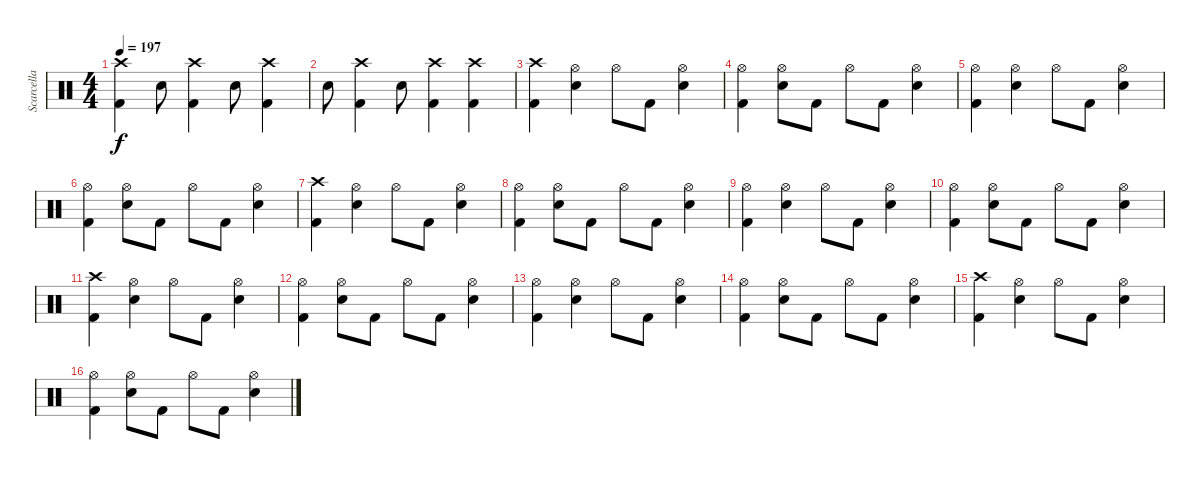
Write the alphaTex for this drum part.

\track ("Scarcella" "Scarcella") {instrument percussion}
\staff {score}
\articulation defaults
\ts (4 4)
\tempo 197
\clef neutral
\ks c
("Crash high (hit)" "Kick (hit) 2").4{dy f} "Electric Snare (hit)".8 ("Crash high (hit)" "Kick (hit) 2").4 "Electric Snare (hit)".8 ("Crash high (hit)" "Kick (hit) 2").4 |
"Electric Snare (hit)".8 ("Crash high (hit)" "Kick (hit) 2").4 "Electric Snare (hit)".8 ("Crash high (hit)" "Kick (hit) 2").4 ("Crash high (hit)" "Kick (hit) 2").4 |
("Crash high (hit)" "Kick (hit) 2").4 ("Hi-Hat (open)" "Electric Snare (hit)").4 "Hi-Hat (open)".8 "Kick (hit) 2".8 ("Hi-Hat (open)" "Electric Snare (hit)").4 |
("Hi-Hat (open)" "Kick (hit) 2").4 ("Hi-Hat (open)" "Electric Snare (hit)").8 "Kick (hit) 2".8 "Hi-Hat (open)".8 "Kick (hit) 2".8 ("Hi-Hat (open)" "Electric Snare (hit)").4 |
("Hi-Hat (open)" "Kick (hit) 2").4 ("Hi-Hat (open)" "Electric Snare (hit)").4 "Hi-Hat (open)".8 "Kick (hit) 2".8 ("Hi-Hat (open)" "Electric Snare (hit)").4 |
("Hi-Hat (open)" "Kick (hit) 2").4 ("Hi-Hat (open)" "Electric Snare (hit)").8 "Kick (hit) 2".8 "Hi-Hat (open)".8 "Kick (hit) 2".8 ("Hi-Hat (open)" "Electric Snare (hit)").4 |
("Crash high (hit)" "Kick (hit) 2").4 ("Hi-Hat (open)" "Electric Snare (hit)").4 "Hi-Hat (open)".8 "Kick (hit) 2".8 ("Hi-Hat (open)" "Electric Snare (hit)").4 |
("Hi-Hat (open)" "Kick (hit) 2").4 ("Hi-Hat (open)" "Electric Snare (hit)").8 "Kick (hit) 2".8 "Hi-Hat (open)".8 "Kick (hit) 2".8 ("Hi-Hat (open)" "Electric Snare (hit)").4 |
("Hi-Hat (open)" "Kick (hit) 2").4 ("Hi-Hat (open)" "Electric Snare (hit)").4 "Hi-Hat (open)".8 "Kick (hit) 2".8 ("Hi-Hat (open)" "Electric Snare (hit)").4 |
("Hi-Hat (open)" "Kick (hit) 2").4 ("Hi-Hat (open)" "Electric Snare (hit)").8 "Kick (hit) 2".8 "Hi-Hat (open)".8 "Kick (hit) 2".8 ("Hi-Hat (open)" "Electric Snare (hit)").4 |
("Crash high (hit)" "Kick (hit) 2").4 ("Hi-Hat (open)" "Electric Snare (hit)").4 "Hi-Hat (open)".8 "Kick (hit) 2".8 ("Hi-Hat (open)" "Electric Snare (hit)").4 |
("Hi-Hat (open)" "Kick (hit) 2").4 ("Hi-Hat (open)" "Electric Snare (hit)").8 "Kick (hit) 2".8 "Hi-Hat (open)".8 "Kick (hit) 2".8 ("Hi-Hat (open)" "Electric Snare (hit)").4 |
("Hi-Hat (open)" "Kick (hit) 2").4 ("Hi-Hat (open)" "Electric Snare (hit)").4 "Hi-Hat (open)".8 "Kick (hit) 2".8 ("Hi-Hat (open)" "Electric Snare (hit)").4 |
("Hi-Hat (open)" "Kick (hit) 2").4 ("Hi-Hat (open)" "Electric Snare (hit)").8 "Kick (hit) 2".8 "Hi-Hat (open)".8 "Kick (hit) 2".8 ("Hi-Hat (open)" "Electric Snare (hit)").4 |
("Crash high (hit)" "Kick (hit) 2").4 ("Hi-Hat (open)" "Electric Snare (hit)").4 "Hi-Hat (open)".8 "Kick (hit) 2".8 ("Hi-Hat (open)" "Electric Snare (hit)").4 |
("Hi-Hat (open)" "Kick (hit) 2").4 ("Hi-Hat (open)" "Electric Snare (hit)").8 "Kick (hit) 2".8 "Hi-Hat (open)".8 "Kick (hit) 2".8 ("Hi-Hat (open)" "Electric Snare (hit)").4
